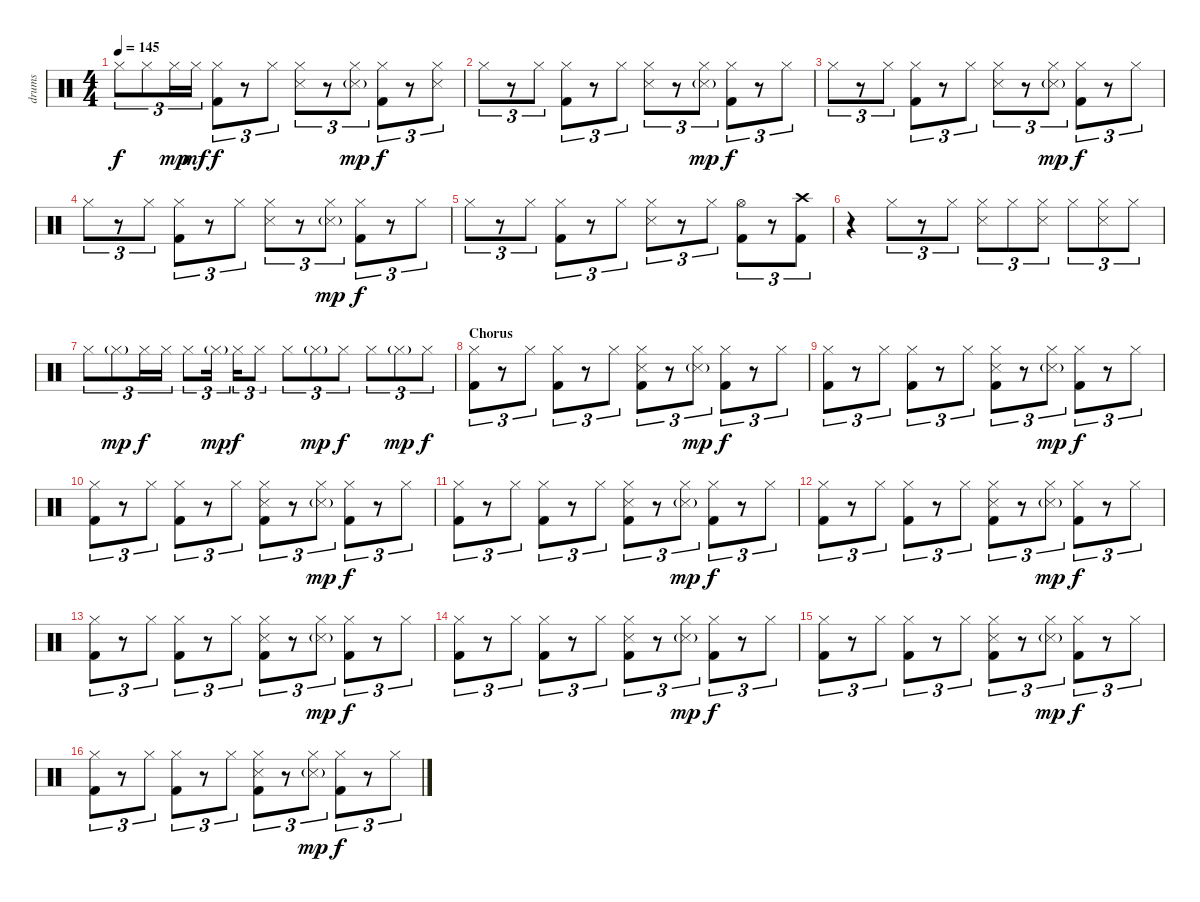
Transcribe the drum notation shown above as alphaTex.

\track ("drums" "drums") {instrument percussion}
\staff {score}
\articulation defaults
\ts (4 4)
\tempo 145
\clef neutral
\ks c "Hi-Hat (closed)".8{tu (3 2) dy f} "Hi-Hat (closed)".8{tu (3 2)} "Hi-Hat (closed)".16{tu (3 2) dy mp} "Hi-Hat (closed)".16{tu (3 2) dy mf}
("Hi-Hat (closed)" "Kick (hit) 2").8{tu (3 2) dy f} r.8{tu (3 2)} "Hi-Hat (closed)".8{tu (3 2)} ("Hi-Hat (closed)" "Snare (side stick) 3").8{tu (3 2)} r.8{tu (3 2)} ("Hi-Hat (closed)" "Snare (side stick) 3"{g}).8{tu (3 2) dy mp} ("Hi-Hat (closed)" "Kick (hit) 2").8{tu (3 2) dy f} r.8{tu (3 2)} ("Hi-Hat (closed)" "Snare (side stick) 3").8{tu (3 2)} |
"Hi-Hat (closed)".8{tu (3 2)} r.8{tu (3 2)} "Hi-Hat (closed)".8{tu (3 2)} ("Hi-Hat (closed)" "Kick (hit) 2").8{tu (3 2)} r.8{tu (3 2)} "Hi-Hat (closed)".8{tu (3 2)} ("Hi-Hat (closed)" "Snare (side stick) 3").8{tu (3 2)} r.8{tu (3 2)} ("Hi-Hat (closed)" "Snare (side stick) 3"{g}).8{tu (3 2) dy mp} ("Hi-Hat (closed)" "Kick (hit) 2").8{tu (3 2) dy f} r.8{tu (3 2)} "Hi-Hat (closed)".8{tu (3 2)} |
"Hi-Hat (closed)".8{tu (3 2)} r.8{tu (3 2)} "Hi-Hat (closed)".8{tu (3 2)} ("Hi-Hat (closed)" "Kick (hit) 2").8{tu (3 2)} r.8{tu (3 2)} "Hi-Hat (closed)".8{tu (3 2)} ("Hi-Hat (closed)" "Snare (side stick) 3").8{tu (3 2)} r.8{tu (3 2)} ("Hi-Hat (closed)" "Snare (side stick) 3"{g}).8{tu (3 2) dy mp} ("Hi-Hat (closed)" "Kick (hit) 2").8{tu (3 2) dy f} r.8{tu (3 2)} "Hi-Hat (closed)".8{tu (3 2)} |
"Hi-Hat (closed)".8{tu (3 2)} r.8{tu (3 2)} "Hi-Hat (closed)".8{tu (3 2)} ("Hi-Hat (closed)" "Kick (hit) 2").8{tu (3 2)} r.8{tu (3 2)} "Hi-Hat (closed)".8{tu (3 2)} ("Hi-Hat (closed)" "Snare (side stick) 3").8{tu (3 2)} r.8{tu (3 2)} ("Hi-Hat (closed)" "Snare (side stick) 3"{g}).8{tu (3 2) dy mp} ("Hi-Hat (closed)" "Kick (hit) 2").8{tu (3 2) dy f} r.8{tu (3 2)} "Hi-Hat (closed)".8{tu (3 2)} |
"Hi-Hat (closed)".8{tu (3 2)} r.8{tu (3 2)} "Hi-Hat (closed)".8{tu (3 2)} ("Hi-Hat (closed)" "Kick (hit) 2").8{tu (3 2)} r.8{tu (3 2)} "Hi-Hat (closed)".8{tu (3 2)} ("Hi-Hat (closed)" "Snare (side stick) 3").8{tu (3 2)} r.8{tu (3 2)} "Hi-Hat (closed)".8{tu (3 2)} ("Hi-Hat (open)" "Kick (hit) 2").8{tu (3 2)} r.8{tu (3 2)} ("Crash high (hit)" "Kick (hit) 2").8{tu (3 2)} |
r.4 "Hi-Hat (closed)".8{tu (3 2)} r.8{tu (3 2)} "Hi-Hat (closed)".8{tu (3 2)} ("Hi-Hat (closed)" "Snare (side stick) 3").8{tu (3 2)} "Hi-Hat (closed)".8{tu (3 2)} ("Hi-Hat (closed)" "Snare (side stick) 3").8{tu (3 2)} "Hi-Hat (closed)".8{tu (3 2)} ("Hi-Hat (closed)" "Snare (side stick) 3").8{tu (3 2)} "Hi-Hat (closed)".8{tu (3 2)} |
"Hi-Hat (closed)".8{tu (3 2)} "Hi-Hat (closed)"{g}.8{tu (3 2) dy mp} "Hi-Hat (closed)".16{tu (3 2) dy f} "Hi-Hat (closed)".16{tu (3 2)} "Hi-Hat (closed)".8{tu (3 2)} "Hi-Hat (closed)"{g}.16{tu (3 2) dy mp} "Hi-Hat (closed)".16{tu (3 2) dy f} "Hi-Hat (closed)".8{tu (3 2)} "Hi-Hat (closed)".8{tu (3 2)} "Hi-Hat (closed)"{g}.8{tu (3 2) dy mp} "Hi-Hat (closed)".8{tu (3 2) dy f} "Hi-Hat (closed)".8{tu (3 2)} "Hi-Hat (closed)"{g}.8{tu (3 2) dy mp} "Hi-Hat (closed)".8{tu (3 2) dy f} |
\section ("" "Chorus")
("Hi-Hat (closed)" "Kick (hit) 2").8{tu (3 2)} r.8{tu (3 2)} "Hi-Hat (closed)".8{tu (3 2)} ("Hi-Hat (closed)" "Kick (hit) 2").8{tu (3 2)} r.8{tu (3 2)} "Hi-Hat (closed)".8{tu (3 2)} ("Hi-Hat (closed)" "Snare (side stick) 3" "Kick (hit) 2").8{tu (3 2)} r.8{tu (3 2)} ("Hi-Hat (closed)" "Snare (side stick) 3"{g}).8{tu (3 2) dy mp} ("Hi-Hat (closed)" "Kick (hit) 2").8{tu (3 2) dy f} r.8{tu (3 2)} "Hi-Hat (closed)".8{tu (3 2)} |
("Hi-Hat (closed)" "Kick (hit) 2").8{tu (3 2)} r.8{tu (3 2)} "Hi-Hat (closed)".8{tu (3 2)} ("Hi-Hat (closed)" "Kick (hit) 2").8{tu (3 2)} r.8{tu (3 2)} "Hi-Hat (closed)".8{tu (3 2)} ("Hi-Hat (closed)" "Snare (side stick) 3" "Kick (hit) 2").8{tu (3 2)} r.8{tu (3 2)} ("Hi-Hat (closed)" "Snare (side stick) 3"{g}).8{tu (3 2) dy mp} ("Hi-Hat (closed)" "Kick (hit) 2").8{tu (3 2) dy f} r.8{tu (3 2)} "Hi-Hat (closed)".8{tu (3 2)} |
("Hi-Hat (closed)" "Kick (hit) 2").8{tu (3 2)} r.8{tu (3 2)} "Hi-Hat (closed)".8{tu (3 2)} ("Hi-Hat (closed)" "Kick (hit) 2").8{tu (3 2)} r.8{tu (3 2)} "Hi-Hat (closed)".8{tu (3 2)} ("Hi-Hat (closed)" "Snare (side stick) 3" "Kick (hit) 2").8{tu (3 2)} r.8{tu (3 2)} ("Hi-Hat (closed)" "Snare (side stick) 3"{g}).8{tu (3 2) dy mp} ("Hi-Hat (closed)" "Kick (hit) 2").8{tu (3 2) dy f} r.8{tu (3 2)} "Hi-Hat (closed)".8{tu (3 2)} |
("Hi-Hat (closed)" "Kick (hit) 2").8{tu (3 2)} r.8{tu (3 2)} "Hi-Hat (closed)".8{tu (3 2)} ("Hi-Hat (closed)" "Kick (hit) 2").8{tu (3 2)} r.8{tu (3 2)} "Hi-Hat (closed)".8{tu (3 2)} ("Hi-Hat (closed)" "Snare (side stick) 3" "Kick (hit) 2").8{tu (3 2)} r.8{tu (3 2)} ("Hi-Hat (closed)" "Snare (side stick) 3"{g}).8{tu (3 2) dy mp} ("Hi-Hat (closed)" "Kick (hit) 2").8{tu (3 2) dy f} r.8{tu (3 2)} "Hi-Hat (closed)".8{tu (3 2)} |
("Hi-Hat (closed)" "Kick (hit) 2").8{tu (3 2)} r.8{tu (3 2)} "Hi-Hat (closed)".8{tu (3 2)} ("Hi-Hat (closed)" "Kick (hit) 2").8{tu (3 2)} r.8{tu (3 2)} "Hi-Hat (closed)".8{tu (3 2)} ("Hi-Hat (closed)" "Snare (side stick) 3" "Kick (hit) 2").8{tu (3 2)} r.8{tu (3 2)} ("Hi-Hat (closed)" "Snare (side stick) 3"{g}).8{tu (3 2) dy mp} ("Hi-Hat (closed)" "Kick (hit) 2").8{tu (3 2) dy f} r.8{tu (3 2)} "Hi-Hat (closed)".8{tu (3 2)} |
("Hi-Hat (closed)" "Kick (hit) 2").8{tu (3 2)} r.8{tu (3 2)} "Hi-Hat (closed)".8{tu (3 2)} ("Hi-Hat (closed)" "Kick (hit) 2").8{tu (3 2)} r.8{tu (3 2)} "Hi-Hat (closed)".8{tu (3 2)} ("Hi-Hat (closed)" "Snare (side stick) 3" "Kick (hit) 2").8{tu (3 2)} r.8{tu (3 2)} ("Hi-Hat (closed)" "Snare (side stick) 3"{g}).8{tu (3 2) dy mp} ("Hi-Hat (closed)" "Kick (hit) 2").8{tu (3 2) dy f} r.8{tu (3 2)} "Hi-Hat (closed)".8{tu (3 2)} |
("Hi-Hat (closed)" "Kick (hit) 2").8{tu (3 2)} r.8{tu (3 2)} "Hi-Hat (closed)".8{tu (3 2)} ("Hi-Hat (closed)" "Kick (hit) 2").8{tu (3 2)} r.8{tu (3 2)} "Hi-Hat (closed)".8{tu (3 2)} ("Hi-Hat (closed)" "Snare (side stick) 3" "Kick (hit) 2").8{tu (3 2)} r.8{tu (3 2)} ("Hi-Hat (closed)" "Snare (side stick) 3"{g}).8{tu (3 2) dy mp} ("Hi-Hat (closed)" "Kick (hit) 2").8{tu (3 2) dy f} r.8{tu (3 2)} "Hi-Hat (closed)".8{tu (3 2)} |
("Hi-Hat (closed)" "Kick (hit) 2").8{tu (3 2)} r.8{tu (3 2)} "Hi-Hat (closed)".8{tu (3 2)} ("Hi-Hat (closed)" "Kick (hit) 2").8{tu (3 2)} r.8{tu (3 2)} "Hi-Hat (closed)".8{tu (3 2)} ("Hi-Hat (closed)" "Snare (side stick) 3" "Kick (hit) 2").8{tu (3 2)} r.8{tu (3 2)} ("Hi-Hat (closed)" "Snare (side stick) 3"{g}).8{tu (3 2) dy mp} ("Hi-Hat (closed)" "Kick (hit) 2").8{tu (3 2) dy f} r.8{tu (3 2)} "Hi-Hat (closed)".8{tu (3 2)} |
("Hi-Hat (closed)" "Kick (hit) 2").8{tu (3 2)} r.8{tu (3 2)} "Hi-Hat (closed)".8{tu (3 2)} ("Hi-Hat (closed)" "Kick (hit) 2").8{tu (3 2)} r.8{tu (3 2)} "Hi-Hat (closed)".8{tu (3 2)} ("Hi-Hat (closed)" "Snare (side stick) 3" "Kick (hit) 2").8{tu (3 2)} r.8{tu (3 2)} ("Hi-Hat (closed)" "Snare (side stick) 3"{g}).8{tu (3 2) dy mp} ("Hi-Hat (closed)" "Kick (hit) 2").8{tu (3 2) dy f} r.8{tu (3 2)} "Hi-Hat (closed)".8{tu (3 2)}
